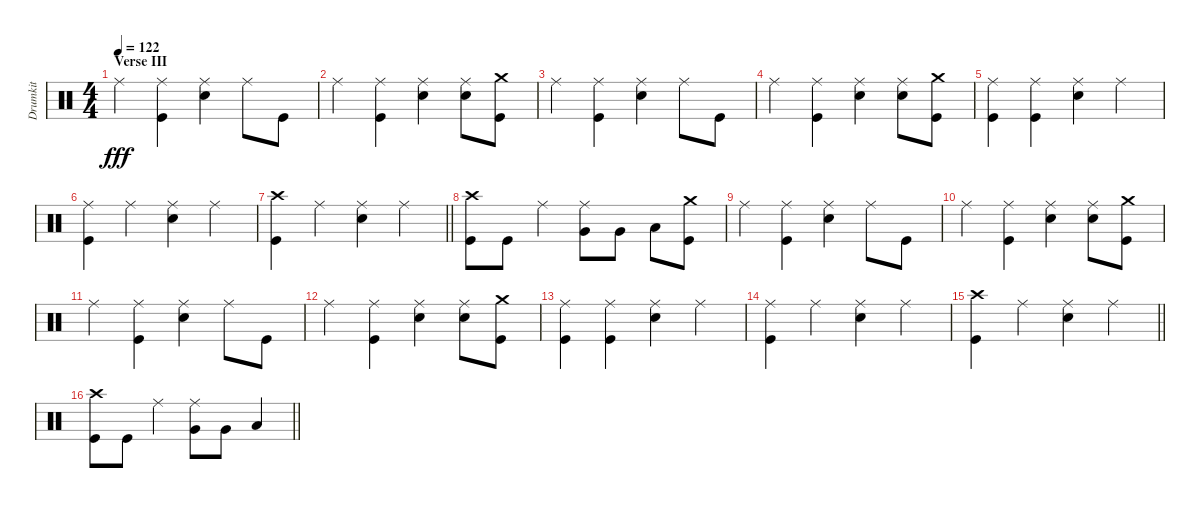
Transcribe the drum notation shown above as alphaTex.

\track ("Drumkit" "Drumkit") {instrument percussion}
\staff {score}
\articulation defaults
\ts (4 4)
\section ("" "Verse III")
\tempo 122
\clef neutral
\ks c "Ride (middle)".4{dy fff}
("Ride (middle)" "Kick (hit)").4 ("Ride (middle)" "Snare (hit) 2").4 "Ride (middle)".8 "Kick (hit)".8 |
"Ride (middle)".4 ("Ride (middle)" "Kick (hit)").4 ("Ride (middle)" "Snare (hit) 2").4 ("Ride (middle)" "Snare (hit) 2").8 ("Kick (hit)" "Crash medium (hit)").8 |
"Ride (middle)".4 ("Ride (middle)" "Kick (hit)").4 ("Ride (middle)" "Snare (hit) 2").4 "Ride (middle)".8 "Kick (hit)".8 |
"Ride (middle)".4 ("Ride (middle)" "Kick (hit)").4 ("Ride (middle)" "Snare (hit) 2").4 ("Ride (middle)" "Snare (hit) 2").8 ("Kick (hit)" "Crash medium (hit)").8 |
("Ride (middle)" "Kick (hit)").4 ("Ride (middle)" "Kick (hit)").4 ("Ride (middle)" "Snare (hit) 2").4 "Ride (middle)".4 |
("Ride (middle)" "Kick (hit)").4 "Ride (middle)".4 ("Ride (middle)" "Snare (hit) 2").4 "Ride (middle)".4 |
\barLineRight lightlight
("Kick (hit)" "Crash high (hit)").4 "Ride (middle)".4 ("Ride (middle)" "Snare (hit) 2").4 "Ride (middle)".4 |
("Kick (hit)" "Crash high (hit)").8 "Kick (hit)".8 "Ride (middle)".4 ("Ride (middle)" "Very Low Tom (hit)").8 "Very Low Tom (hit)".8 "Low Tom (hit)".8 ("Crash medium (hit)" "Kick (hit)").8 |
"Ride (middle)".4 ("Ride (middle)" "Kick (hit)").4 ("Ride (middle)" "Snare (hit) 2").4 "Ride (middle)".8 "Kick (hit)".8 |
"Ride (middle)".4 ("Ride (middle)" "Kick (hit)").4 ("Ride (middle)" "Snare (hit) 2").4 ("Ride (middle)" "Snare (hit) 2").8 ("Kick (hit)" "Crash medium (hit)").8 |
"Ride (middle)".4 ("Ride (middle)" "Kick (hit)").4 ("Ride (middle)" "Snare (hit) 2").4 "Ride (middle)".8 "Kick (hit)".8 |
"Ride (middle)".4 ("Ride (middle)" "Kick (hit)").4 ("Ride (middle)" "Snare (hit) 2").4 ("Ride (middle)" "Snare (hit) 2").8 ("Kick (hit)" "Crash medium (hit)").8 |
("Ride (middle)" "Kick (hit)").4 ("Ride (middle)" "Kick (hit)").4 ("Ride (middle)" "Snare (hit) 2").4 "Ride (middle)".4 |
("Ride (middle)" "Kick (hit)").4 "Ride (middle)".4 ("Ride (middle)" "Snare (hit) 2").4 "Ride (middle)".4 |
\barLineRight lightlight
("Kick (hit)" "Crash high (hit)").4 "Ride (middle)".4 ("Ride (middle)" "Snare (hit) 2").4 "Ride (middle)".4 |
\barLineRight lightlight
("Kick (hit)" "Crash high (hit)").8 "Kick (hit)".8 "Ride (middle)".4 ("Ride (middle)" "Very Low Tom (hit)").8 "Very Low Tom (hit)".8 "Low Tom (hit)".4
